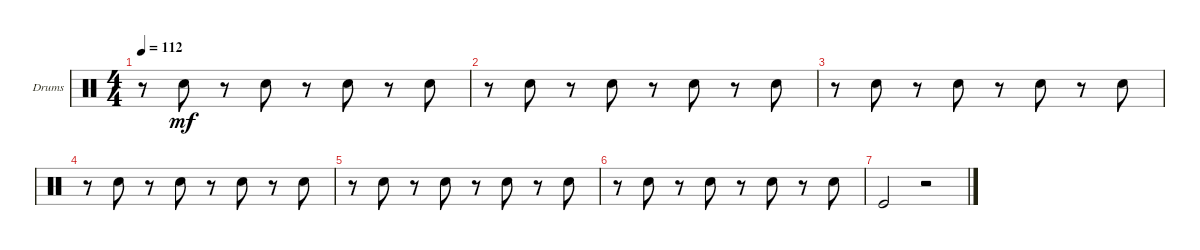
\defaultSystemsLayout 4
\bracketExtendMode groupsimilarinstruments
\firstSystemTrackNameOrientation horizontal
\otherSystemsTrackNameOrientation horizontal
\track ("Drumkit" "Drums") {instrument percussion}
\staff {score}
\articulation defaults
\ts (4 4)
\tempo 112
\clef neutral
\scale
0.333333
\ks c
r.8{dy mf} "Snare (hit) 2".8 r.8 "Snare (hit) 2".8 r.8 "Snare (hit) 2".8 r.8 "Snare (hit) 2".8 |
r.8 "Snare (hit) 2".8 r.8 "Snare (hit) 2".8 r.8 "Snare (hit) 2".8 r.8 "Snare (hit) 2".8 |
r.8 "Snare (hit) 2".8 r.8 "Snare (hit) 2".8 r.8 "Snare (hit) 2".8 r.8 "Snare (hit) 2".8 |
r.8 "Snare (hit) 2".8 r.8 "Snare (hit) 2".8 r.8 "Snare (hit) 2".8 r.8 "Snare (hit) 2".8 |
r.8 "Snare (hit) 2".8 r.8 "Snare (hit) 2".8 r.8 "Snare (hit) 2".8 r.8 "Snare (hit) 2".8 |
r.8 "Snare (hit) 2".8 r.8 "Snare (hit) 2".8 r.8 "Snare (hit) 2".8 r.8 "Snare (hit) 2".8 |
"Kick (hit)".2 r.2
